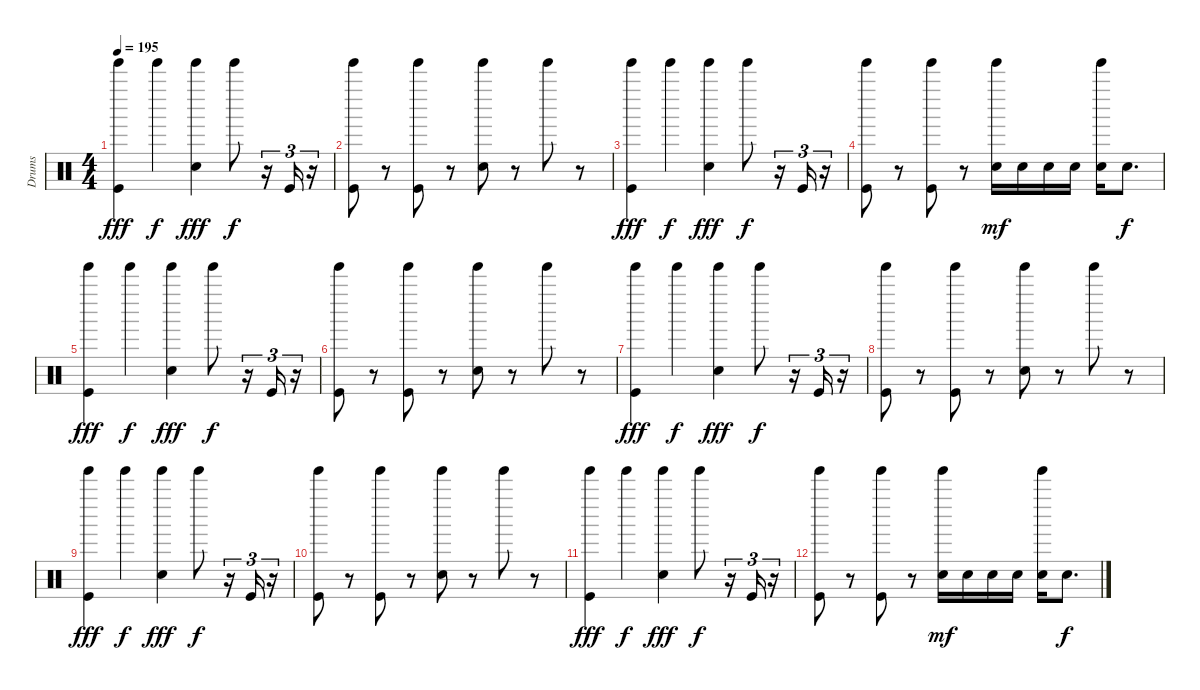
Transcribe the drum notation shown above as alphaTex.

\track ("Drums" "Drums") {instrument percussion}
\staff {score}
\articulation defaults
\ts (4 4)
\tempo 195
\clef neutral
\ks c
("Tinkle Bell (hit)" "Kick (hit)").4{dy fff} "Tinkle Bell (hit)".4{dy f} ("Tinkle Bell (hit)" "Snare (hit) 2").4{dy fff} "Tinkle Bell (hit)".8{dy f} r.16{tu (3 2)} "Kick (hit)".16{tu (3 2)} r.16{tu (3 2)} |
("Tinkle Bell (hit)" "Kick (hit)").8 r.8 ("Tinkle Bell (hit)" "Kick (hit)").8 r.8 ("Tinkle Bell (hit)" "Snare (hit) 2").8 r.8 "Tinkle Bell (hit)".8 r.8 |
("Tinkle Bell (hit)" "Kick (hit)").4{dy fff} "Tinkle Bell (hit)".4{dy f} ("Tinkle Bell (hit)" "Snare (hit) 2").4{dy fff} "Tinkle Bell (hit)".8{dy f} r.16{tu (3 2)} "Kick (hit)".16{tu (3 2)} r.16{tu (3 2)} |
("Tinkle Bell (hit)" "Kick (hit)").8 r.8 ("Tinkle Bell (hit)" "Kick (hit)").8 r.8 ("Tinkle Bell (hit)" "Snare (hit) 2").16{dy mf} "Snare (hit) 2".16 "Snare (hit) 2".16 "Snare (hit) 2".16 ("Tinkle Bell (hit)" "Snare (hit) 2").16 "Snare (hit)".8{d dy f} |
("Tinkle Bell (hit)" "Kick (hit)").4{dy fff} "Tinkle Bell (hit)".4{dy f} ("Tinkle Bell (hit)" "Snare (hit) 2").4{dy fff} "Tinkle Bell (hit)".8{dy f} r.16{tu (3 2)} "Kick (hit)".16{tu (3 2)} r.16{tu (3 2)} |
("Tinkle Bell (hit)" "Kick (hit)").8 r.8 ("Tinkle Bell (hit)" "Kick (hit)").8 r.8 ("Tinkle Bell (hit)" "Snare (hit) 2").8 r.8 "Tinkle Bell (hit)".8 r.8 |
("Tinkle Bell (hit)" "Kick (hit)").4{dy fff} "Tinkle Bell (hit)".4{dy f} ("Tinkle Bell (hit)" "Snare (hit) 2").4{dy fff} "Tinkle Bell (hit)".8{dy f} r.16{tu (3 2)} "Kick (hit)".16{tu (3 2)} r.16{tu (3 2)} |
("Tinkle Bell (hit)" "Kick (hit)").8 r.8 ("Tinkle Bell (hit)" "Kick (hit)").8 r.8 ("Tinkle Bell (hit)" "Snare (hit) 2").8 r.8 "Tinkle Bell (hit)".8 r.8 |
("Tinkle Bell (hit)" "Kick (hit)").4{dy fff} "Tinkle Bell (hit)".4{dy f} ("Tinkle Bell (hit)" "Snare (hit) 2").4{dy fff} "Tinkle Bell (hit)".8{dy f} r.16{tu (3 2)} "Kick (hit)".16{tu (3 2)} r.16{tu (3 2)} |
("Tinkle Bell (hit)" "Kick (hit)").8 r.8 ("Tinkle Bell (hit)" "Kick (hit)").8 r.8 ("Tinkle Bell (hit)" "Snare (hit) 2").8 r.8 "Tinkle Bell (hit)".8 r.8 |
("Tinkle Bell (hit)" "Kick (hit)").4{dy fff} "Tinkle Bell (hit)".4{dy f} ("Tinkle Bell (hit)" "Snare (hit) 2").4{dy fff} "Tinkle Bell (hit)".8{dy f} r.16{tu (3 2)} "Kick (hit)".16{tu (3 2)} r.16{tu (3 2)} |
("Tinkle Bell (hit)" "Kick (hit)").8 r.8 ("Tinkle Bell (hit)" "Kick (hit)").8 r.8 ("Tinkle Bell (hit)" "Snare (hit) 2").16{dy mf} "Snare (hit) 2".16 "Snare (hit) 2".16 "Snare (hit) 2".16 ("Tinkle Bell (hit)" "Snare (hit) 2").16 "Snare (hit)".8{d dy f}
